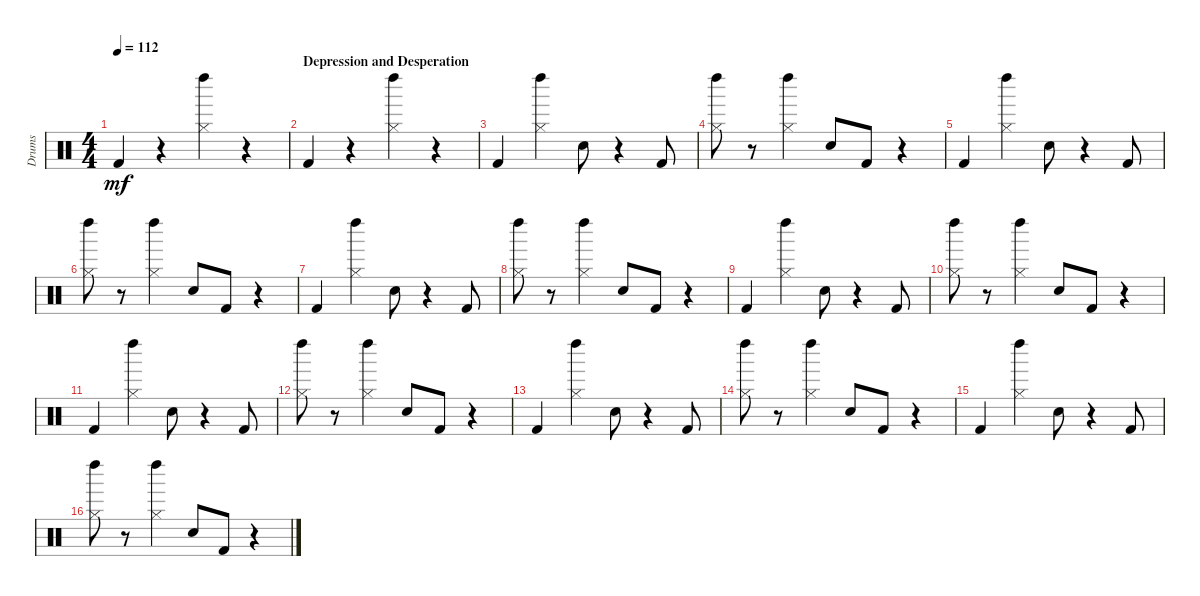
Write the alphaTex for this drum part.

\track ("Drums" "Drums") {instrument percussion}
\staff {score}
\articulation defaults
\ts (4 4)
\tempo 112
\clef neutral
\ks c "Kick (hit) 2".4{dy mf}
r.4 ("Hi-Hat (closed)" "Left Maraca (hit)").4 r.4 |
\section ("" "Depression and Desperation ")
"Kick (hit) 2".4 r.4 ("Hi-Hat (closed)" "Left Maraca (hit)").4 r.4 |
"Kick (hit) 2".4 ("Left Maraca (hit)" "Hi-Hat (closed)").4 "Snare (hit) 2".8 r.4 "Kick (hit) 2".8 |
("Left Maraca (hit)" "Hi-Hat (closed)").8 r.8 ("Left Maraca (hit)" "Hi-Hat (closed)").4 "Snare (hit) 2".8 "Kick (hit) 2".8 r.4 |
"Kick (hit) 2".4 ("Left Maraca (hit)" "Hi-Hat (closed)").4 "Snare (hit) 2".8 r.4 "Kick (hit) 2".8 |
("Left Maraca (hit)" "Hi-Hat (closed)").8 r.8 ("Left Maraca (hit)" "Hi-Hat (closed)").4 "Snare (hit) 2".8 "Kick (hit) 2".8 r.4 |
"Kick (hit) 2".4 ("Left Maraca (hit)" "Hi-Hat (closed)").4 "Snare (hit) 2".8 r.4 "Kick (hit) 2".8 |
("Left Maraca (hit)" "Hi-Hat (closed)").8 r.8 ("Left Maraca (hit)" "Hi-Hat (closed)").4 "Snare (hit) 2".8 "Kick (hit) 2".8 r.4 |
"Kick (hit) 2".4 ("Left Maraca (hit)" "Hi-Hat (closed)").4 "Snare (hit) 2".8 r.4 "Kick (hit) 2".8 |
("Left Maraca (hit)" "Hi-Hat (closed)").8 r.8 ("Left Maraca (hit)" "Hi-Hat (closed)").4 "Snare (hit) 2".8 "Kick (hit) 2".8 r.4 |
"Kick (hit) 2".4 ("Left Maraca (hit)" "Hi-Hat (closed)").4 "Snare (hit) 2".8 r.4 "Kick (hit) 2".8 |
("Left Maraca (hit)" "Hi-Hat (closed)").8 r.8 ("Left Maraca (hit)" "Hi-Hat (closed)").4 "Snare (hit) 2".8 "Kick (hit) 2".8 r.4 |
"Kick (hit) 2".4 ("Left Maraca (hit)" "Hi-Hat (closed)").4 "Snare (hit) 2".8 r.4 "Kick (hit) 2".8 |
("Left Maraca (hit)" "Hi-Hat (closed)").8 r.8 ("Left Maraca (hit)" "Hi-Hat (closed)").4 "Snare (hit) 2".8 "Kick (hit) 2".8 r.4 |
"Kick (hit) 2".4 ("Left Maraca (hit)" "Hi-Hat (closed)").4 "Snare (hit) 2".8 r.4 "Kick (hit) 2".8 |
("Left Maraca (hit)" "Hi-Hat (closed)").8 r.8 ("Left Maraca (hit)" "Hi-Hat (closed)").4 "Snare (hit) 2".8 "Kick (hit) 2".8 r.4
